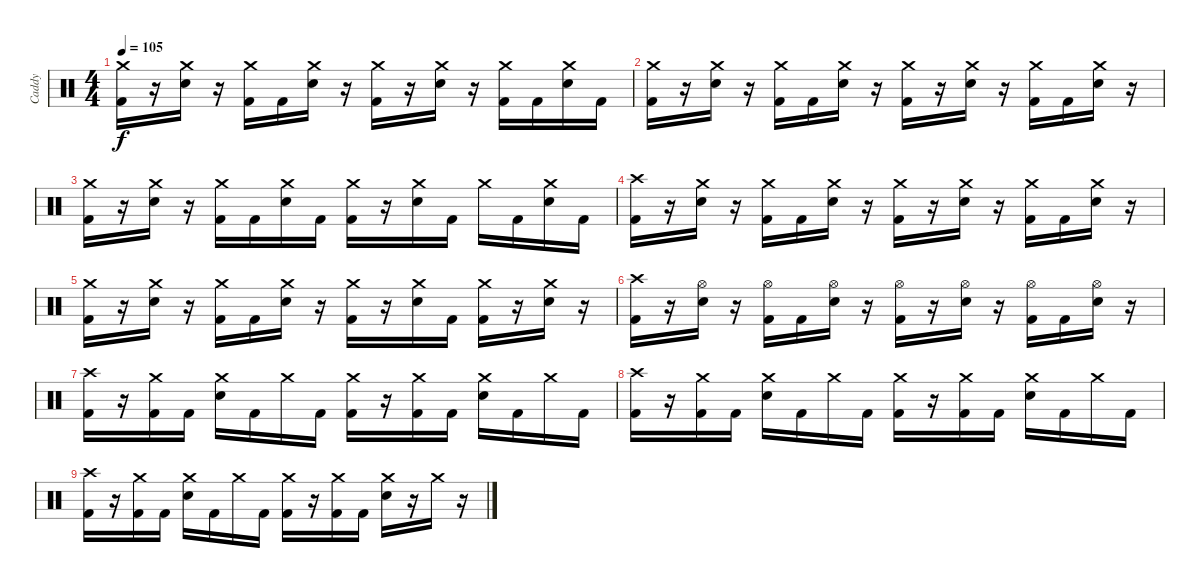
\track ("Caddy" "Caddy") {instrument percussion}
\staff {score}
\articulation defaults
\ts (4 4)
\tempo 105
\clef neutral
\ks c
("Crash medium (hit)" "Kick (hit) 2").16{dy f} r.16 ("Crash medium (hit)" "Electric Snare (hit)").16 r.16 ("Crash medium (hit)" "Kick (hit) 2").16 "Kick (hit) 2".16 ("Crash medium (hit)" "Electric Snare (hit)").16 r.16 ("Crash medium (hit)" "Kick (hit) 2").16 r.16 ("Crash medium (hit)" "Electric Snare (hit)").16 r.16 ("Crash medium (hit)" "Kick (hit) 2").16 "Kick (hit) 2".16 ("Crash medium (hit)" "Electric Snare (hit)").16 "Kick (hit) 2".16 |
("Crash medium (hit)" "Kick (hit) 2").16 r.16 ("Crash medium (hit)" "Electric Snare (hit)").16 r.16 ("Crash medium (hit)" "Kick (hit) 2").16 "Kick (hit) 2".16 ("Crash medium (hit)" "Electric Snare (hit)").16 r.16 ("Crash medium (hit)" "Kick (hit) 2").16 r.16 ("Crash medium (hit)" "Electric Snare (hit)").16 r.16 ("Crash medium (hit)" "Kick (hit) 2").16 "Kick (hit) 2".16 ("Crash medium (hit)" "Electric Snare (hit)").16 r.16 |
("Crash medium (hit)" "Kick (hit) 2").16 r.16 ("Crash medium (hit)" "Electric Snare (hit)").16 r.16 ("Crash medium (hit)" "Kick (hit) 2").16 "Kick (hit) 2".16 ("Crash medium (hit)" "Electric Snare (hit)").16 "Kick (hit) 2".16 ("Crash medium (hit)" "Kick (hit) 2").16 r.16 ("Crash medium (hit)" "Electric Snare (hit)").16 "Kick (hit) 2".16 "Crash medium (hit)".16 "Kick (hit) 2".16 ("Crash medium (hit)" "Electric Snare (hit)").16 "Kick (hit) 2".16 |
("Crash high (hit)" "Kick (hit) 2").16 r.16 ("Crash medium (hit)" "Electric Snare (hit)").16 r.16 ("Crash medium (hit)" "Kick (hit) 2").16 "Kick (hit) 2".16 ("Crash medium (hit)" "Electric Snare (hit)").16 r.16 ("Crash medium (hit)" "Kick (hit) 2").16 r.16 ("Crash medium (hit)" "Electric Snare (hit)").16 r.16 ("Crash medium (hit)" "Kick (hit) 2").16 "Kick (hit) 2".16 ("Crash medium (hit)" "Electric Snare (hit)").16 r.16 |
("Crash medium (hit)" "Kick (hit) 2").16 r.16 ("Crash medium (hit)" "Electric Snare (hit)").16 r.16 ("Crash medium (hit)" "Kick (hit) 2").16 "Kick (hit) 2".16 ("Crash medium (hit)" "Electric Snare (hit)").16 r.16 ("Crash medium (hit)" "Kick (hit) 2").16 r.16 ("Crash medium (hit)" "Electric Snare (hit)").16 "Kick (hit) 2".16 ("Crash medium (hit)" "Kick (hit) 2").16 r.16 ("Crash medium (hit)" "Electric Snare (hit)").16 r.16 |
("Crash high (hit)" "Kick (hit) 2").16 r.16 ("Hi-Hat (open)" "Electric Snare (hit)").16 r.16 ("Hi-Hat (open)" "Kick (hit) 2").16 "Kick (hit) 2".16 ("Hi-Hat (open)" "Electric Snare (hit)").16 r.16 ("Hi-Hat (open)" "Kick (hit) 2").16 r.16 ("Hi-Hat (open)" "Electric Snare (hit)").16 r.16 ("Hi-Hat (open)" "Kick (hit) 2").16 "Kick (hit) 2".16 ("Hi-Hat (open)" "Electric Snare (hit)").16 r.16 |
("Crash high (hit)" "Kick (hit) 2").16 r.16 ("Crash medium (hit)" "Kick (hit) 2").16 "Kick (hit) 2".16 ("Crash medium (hit)" "Electric Snare (hit)").16 "Kick (hit) 2".16 "Crash medium (hit)".16 "Kick (hit) 2".16 ("Crash medium (hit)" "Kick (hit) 2").16 r.16 ("Crash medium (hit)" "Kick (hit) 2").16 "Kick (hit) 2".16 ("Crash medium (hit)" "Electric Snare (hit)").16 "Kick (hit) 2".16 "Crash medium (hit)".16 "Kick (hit) 2".16 |
("Crash high (hit)" "Kick (hit) 2").16 r.16 ("Crash medium (hit)" "Kick (hit) 2").16 "Kick (hit) 2".16 ("Crash medium (hit)" "Electric Snare (hit)").16 "Kick (hit) 2".16 "Crash medium (hit)".16 "Kick (hit) 2".16 ("Crash medium (hit)" "Kick (hit) 2").16 r.16 ("Crash medium (hit)" "Kick (hit) 2").16 "Kick (hit) 2".16 ("Crash medium (hit)" "Electric Snare (hit)").16 "Kick (hit) 2".16 "Crash medium (hit)".16 "Kick (hit) 2".16 |
("Crash high (hit)" "Kick (hit) 2").16 r.16 ("Crash medium (hit)" "Kick (hit) 2").16 "Kick (hit) 2".16 ("Crash medium (hit)" "Electric Snare (hit)").16 "Kick (hit) 2".16 "Crash medium (hit)".16 "Kick (hit) 2".16 ("Crash medium (hit)" "Kick (hit) 2").16 r.16 ("Crash medium (hit)" "Kick (hit) 2").16 "Kick (hit) 2".16 ("Crash medium (hit)" "Electric Snare (hit)").16 r.16 "Crash medium (hit)".16 r.16
